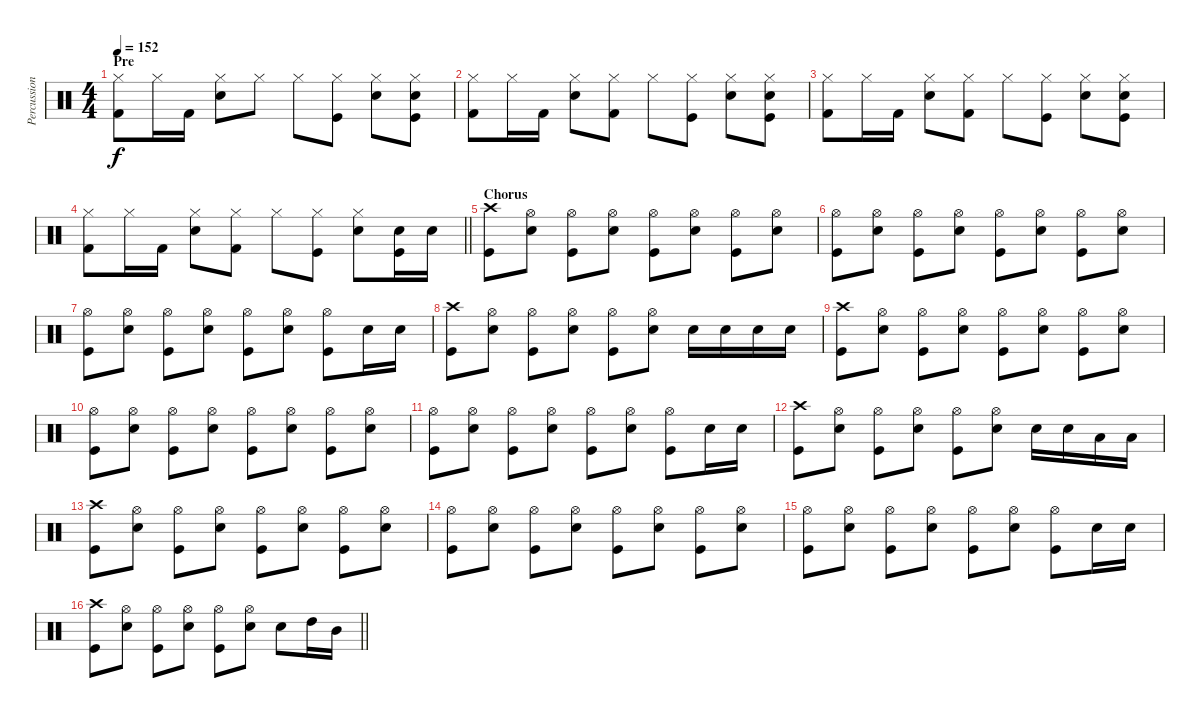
\track ("Percussion" "Percussion") {instrument percussion}
\staff {score}
\articulation defaults
\ts (4 4)
\section ("" "Pre")
\tempo 152
\clef neutral
\ks c
("Hi-Hat (closed)" "Kick (hit) 2").8{dy f} "Hi-Hat (closed)".16 "Kick (hit) 2".16 ("Hi-Hat (closed)" "Snare (hit) 2").8 "Hi-Hat (closed)".8 "Hi-Hat (closed)".8 ("Hi-Hat (closed)" "Kick (hit)").8 ("Hi-Hat (closed)" "Snare (hit) 2").8 ("Hi-Hat (closed)" "Snare (hit) 2" "Kick (hit)").8 |
("Hi-Hat (closed)" "Kick (hit) 2").8 "Hi-Hat (closed)".16 "Kick (hit) 2".16 ("Hi-Hat (closed)" "Snare (hit) 2").8 ("Hi-Hat (closed)" "Kick (hit) 2").8 "Hi-Hat (closed)".8 ("Hi-Hat (closed)" "Kick (hit)").8 ("Hi-Hat (closed)" "Snare (hit) 2").8 ("Hi-Hat (closed)" "Snare (hit) 2" "Kick (hit)").8 |
("Hi-Hat (closed)" "Kick (hit) 2").8 "Hi-Hat (closed)".16 "Kick (hit) 2".16 ("Hi-Hat (closed)" "Snare (hit) 2").8 ("Hi-Hat (closed)" "Kick (hit) 2").8 "Hi-Hat (closed)".8 ("Hi-Hat (closed)" "Kick (hit)").8 ("Hi-Hat (closed)" "Snare (hit) 2").8 ("Hi-Hat (closed)" "Snare (hit) 2" "Kick (hit)").8 |
\barLineRight lightlight
("Hi-Hat (closed)" "Kick (hit) 2").8 "Hi-Hat (closed)".16 "Kick (hit) 2".16 ("Hi-Hat (closed)" "Snare (hit) 2").8 ("Hi-Hat (closed)" "Kick (hit) 2").8 "Hi-Hat (closed)".8 ("Hi-Hat (closed)" "Kick (hit)").8 ("Hi-Hat (closed)" "Snare (hit) 2").8 ("Snare (hit) 2" "Kick (hit)").16 "Snare (hit) 2".16 |
\section ("" "Chorus")
("Crash high (hit)" "Kick (hit)").8 ("Hi-Hat (open)" "Snare (hit) 2").8 ("Hi-Hat (open)" "Kick (hit)").8 ("Hi-Hat (open)" "Snare (hit) 2").8 ("Hi-Hat (open)" "Kick (hit)").8 ("Hi-Hat (open)" "Snare (hit) 2").8 ("Hi-Hat (open)" "Kick (hit)").8 ("Hi-Hat (open)" "Snare (hit) 2").8 |
("Hi-Hat (open)" "Kick (hit)").8 ("Hi-Hat (open)" "Snare (hit) 2").8 ("Hi-Hat (open)" "Kick (hit)").8 ("Hi-Hat (open)" "Snare (hit) 2").8 ("Hi-Hat (open)" "Kick (hit)").8 ("Hi-Hat (open)" "Snare (hit) 2").8 ("Hi-Hat (open)" "Kick (hit)").8 ("Hi-Hat (open)" "Snare (hit) 2").8 |
("Hi-Hat (open)" "Kick (hit)").8 ("Hi-Hat (open)" "Snare (hit) 2").8 ("Hi-Hat (open)" "Kick (hit)").8 ("Hi-Hat (open)" "Snare (hit) 2").8 ("Hi-Hat (open)" "Kick (hit)").8 ("Hi-Hat (open)" "Snare (hit) 2").8 ("Hi-Hat (open)" "Kick (hit)").8 "Snare (hit) 2".16 "Snare (hit) 2".16 |
("Crash high (hit)" "Kick (hit)").8 ("Hi-Hat (open)" "Snare (hit) 2").8 ("Hi-Hat (open)" "Kick (hit)").8 ("Hi-Hat (open)" "Snare (hit) 2").8 ("Hi-Hat (open)" "Kick (hit)").8 ("Hi-Hat (open)" "Snare (hit) 2").8 "Snare (hit) 2".16 "Snare (hit) 2".16 "Snare (hit) 2".16 "Snare (hit) 2".16 |
("Crash high (hit)" "Kick (hit)").8 ("Hi-Hat (open)" "Snare (hit) 2").8 ("Hi-Hat (open)" "Kick (hit)").8 ("Hi-Hat (open)" "Snare (hit) 2").8 ("Hi-Hat (open)" "Kick (hit)").8 ("Hi-Hat (open)" "Snare (hit) 2").8 ("Hi-Hat (open)" "Kick (hit)").8 ("Hi-Hat (open)" "Snare (hit) 2").8 |
("Hi-Hat (open)" "Kick (hit)").8 ("Hi-Hat (open)" "Snare (hit) 2").8 ("Hi-Hat (open)" "Kick (hit)").8 ("Hi-Hat (open)" "Snare (hit) 2").8 ("Hi-Hat (open)" "Kick (hit)").8 ("Hi-Hat (open)" "Snare (hit) 2").8 ("Hi-Hat (open)" "Kick (hit)").8 ("Hi-Hat (open)" "Snare (hit) 2").8 |
("Hi-Hat (open)" "Kick (hit)").8 ("Hi-Hat (open)" "Snare (hit) 2").8 ("Hi-Hat (open)" "Kick (hit)").8 ("Hi-Hat (open)" "Snare (hit) 2").8 ("Hi-Hat (open)" "Kick (hit)").8 ("Hi-Hat (open)" "Snare (hit) 2").8 ("Hi-Hat (open)" "Kick (hit)").8 "Snare (hit) 2".16 "Snare (hit) 2".16 |
("Crash high (hit)" "Kick (hit)").8 ("Hi-Hat (open)" "Snare (hit) 2").8 ("Hi-Hat (open)" "Kick (hit)").8 ("Hi-Hat (open)" "Snare (hit) 2").8 ("Hi-Hat (open)" "Kick (hit)").8 ("Hi-Hat (open)" "Snare (hit) 2").8 "Snare (hit) 2".16 "Snare (hit) 2".16 "Low Tom (hit)".16 "Low Tom (hit)".16 |
("Crash high (hit)" "Kick (hit)").8 ("Hi-Hat (open)" "Snare (hit) 2").8 ("Hi-Hat (open)" "Kick (hit)").8 ("Hi-Hat (open)" "Snare (hit) 2").8 ("Hi-Hat (open)" "Kick (hit)").8 ("Hi-Hat (open)" "Snare (hit) 2").8 ("Hi-Hat (open)" "Kick (hit)").8 ("Hi-Hat (open)" "Snare (hit) 2").8 |
("Hi-Hat (open)" "Kick (hit)").8 ("Hi-Hat (open)" "Snare (hit) 2").8 ("Hi-Hat (open)" "Kick (hit)").8 ("Hi-Hat (open)" "Snare (hit) 2").8 ("Hi-Hat (open)" "Kick (hit)").8 ("Hi-Hat (open)" "Snare (hit) 2").8 ("Hi-Hat (open)" "Kick (hit)").8 ("Hi-Hat (open)" "Snare (hit) 2").8 |
("Hi-Hat (open)" "Kick (hit)").8 ("Hi-Hat (open)" "Snare (hit) 2").8 ("Hi-Hat (open)" "Kick (hit)").8 ("Hi-Hat (open)" "Snare (hit) 2").8 ("Hi-Hat (open)" "Kick (hit)").8 ("Hi-Hat (open)" "Snare (hit) 2").8 ("Hi-Hat (open)" "Kick (hit)").8 "Snare (hit) 2".16 "Snare (hit) 2".16 |
\barLineRight lightlight
("Crash high (hit)" "Kick (hit)").8 ("Hi-Hat (open)" "Snare (hit) 2").8 ("Hi-Hat (open)" "Kick (hit)").8 ("Hi-Hat (open)" "Snare (hit) 2").8 ("Hi-Hat (open)" "Kick (hit)").8 ("Hi-Hat (open)" "Snare (hit) 2").8 "Snare (hit) 2".8 "High Tom (hit)".16 "Mid Tom (hit)".16
